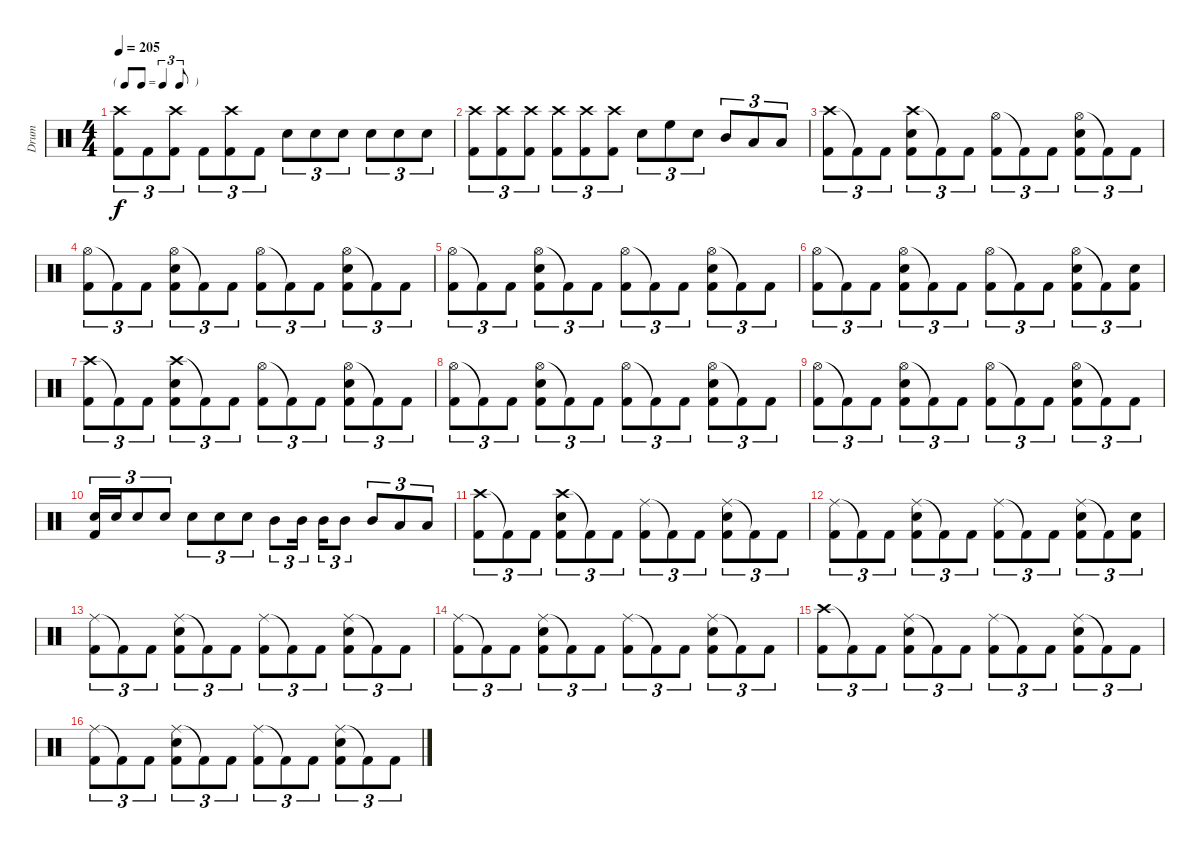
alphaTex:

\track ("Drum" "Drum") {instrument percussion}
\staff {score}
\articulation defaults
\ts (4 4)
\tf triplet8th
\tempo 205
\clef neutral
\ks c
("Crash high (hit)" "Kick (hit) 2").8{tu (3 2) dy f} "Kick (hit) 2".8{tu (3 2)} ("Crash high (hit)" "Kick (hit) 2").8{tu (3 2)} "Kick (hit) 2".8{tu (3 2)} ("Crash high (hit)" "Kick (hit) 2").8{tu (3 2)} "Kick (hit) 2".8{tu (3 2)} "Snare (hit) 2".8{tu (3 2)} "Snare (hit) 2".8{tu (3 2)} "Snare (hit) 2".8{tu (3 2)} "Snare (hit) 2".8{tu (3 2)} "Snare (hit) 2".8{tu (3 2)} "Snare (hit) 2".8{tu (3 2)} |
("Crash high (hit)" "Kick (hit) 2").8{tu (3 2)} ("Crash high (hit)" "Kick (hit) 2").8{tu (3 2)} ("Crash high (hit)" "Kick (hit) 2").8{tu (3 2)} ("Crash high (hit)" "Kick (hit) 2").8{tu (3 2)} ("Crash high (hit)" "Kick (hit) 2").8{tu (3 2)} ("Crash high (hit)" "Kick (hit) 2").8{tu (3 2)} "Snare (hit) 2".8{tu (3 2)} "High Floor Tom (hit)".8{tu (3 2)} "Snare (hit) 2".8{tu (3 2)} "Mid Tom (hit)".8{tu (3 2)} "Low Tom (hit)".8{tu (3 2)} "Low Tom (hit)".8{tu (3 2)} |
("Crash high (hit)" "Kick (hit) 2").8{tu (3 2)} "Kick (hit) 2"{t}.8{tu (3 2)} "Kick (hit) 2".8{tu (3 2)} ("Crash high (hit)" "Snare (hit) 2" "Kick (hit) 2").8{tu (3 2)} "Kick (hit) 2"{t}.8{tu (3 2)} "Kick (hit) 2".8{tu (3 2)} ("Hi-Hat (open)" "Kick (hit) 2").8{tu (3 2)} "Kick (hit) 2"{t}.8{tu (3 2)} "Kick (hit) 2".8{tu (3 2)} ("Hi-Hat (open)" "Snare (hit) 2" "Kick (hit) 2").8{tu (3 2)} "Kick (hit) 2"{t}.8{tu (3 2)} "Kick (hit) 2".8{tu (3 2)} |
("Hi-Hat (open)" "Kick (hit) 2").8{tu (3 2)} "Kick (hit) 2"{t}.8{tu (3 2)} "Kick (hit) 2".8{tu (3 2)} ("Hi-Hat (open)" "Snare (hit) 2" "Kick (hit) 2").8{tu (3 2)} "Kick (hit) 2"{t}.8{tu (3 2)} "Kick (hit) 2".8{tu (3 2)} ("Hi-Hat (open)" "Kick (hit) 2").8{tu (3 2)} "Kick (hit) 2"{t}.8{tu (3 2)} "Kick (hit) 2".8{tu (3 2)} ("Hi-Hat (open)" "Snare (hit) 2" "Kick (hit) 2").8{tu (3 2)} "Kick (hit) 2"{t}.8{tu (3 2)} "Kick (hit) 2".8{tu (3 2)} |
("Hi-Hat (open)" "Kick (hit) 2").8{tu (3 2)} "Kick (hit) 2"{t}.8{tu (3 2)} "Kick (hit) 2".8{tu (3 2)} ("Hi-Hat (open)" "Snare (hit) 2" "Kick (hit) 2").8{tu (3 2)} "Kick (hit) 2"{t}.8{tu (3 2)} "Kick (hit) 2".8{tu (3 2)} ("Hi-Hat (open)" "Kick (hit) 2").8{tu (3 2)} "Kick (hit) 2"{t}.8{tu (3 2)} "Kick (hit) 2".8{tu (3 2)} ("Hi-Hat (open)" "Snare (hit) 2" "Kick (hit) 2").8{tu (3 2)} "Kick (hit) 2"{t}.8{tu (3 2)} "Kick (hit) 2".8{tu (3 2)} |
("Hi-Hat (open)" "Kick (hit) 2").8{tu (3 2)} "Kick (hit) 2"{t}.8{tu (3 2)} "Kick (hit) 2".8{tu (3 2)} ("Hi-Hat (open)" "Snare (hit) 2" "Kick (hit) 2").8{tu (3 2)} "Kick (hit) 2"{t}.8{tu (3 2)} "Kick (hit) 2".8{tu (3 2)} ("Hi-Hat (open)" "Kick (hit) 2").8{tu (3 2)} "Kick (hit) 2"{t}.8{tu (3 2)} "Kick (hit) 2".8{tu (3 2)} ("Hi-Hat (open)" "Snare (hit) 2" "Kick (hit) 2").8{tu (3 2)} "Kick (hit) 2"{t}.8{tu (3 2)} ("Snare (hit) 2" "Kick (hit) 2").8{tu (3 2)} |
("Crash high (hit)" "Kick (hit) 2").8{tu (3 2)} "Kick (hit) 2"{t}.8{tu (3 2)} "Kick (hit) 2".8{tu (3 2)} ("Crash high (hit)" "Snare (hit) 2" "Kick (hit) 2").8{tu (3 2)} "Kick (hit) 2"{t}.8{tu (3 2)} "Kick (hit) 2".8{tu (3 2)} ("Hi-Hat (open)" "Kick (hit) 2").8{tu (3 2)} "Kick (hit) 2"{t}.8{tu (3 2)} "Kick (hit) 2".8{tu (3 2)} ("Hi-Hat (open)" "Snare (hit) 2" "Kick (hit) 2").8{tu (3 2)} "Kick (hit) 2"{t}.8{tu (3 2)} "Kick (hit) 2".8{tu (3 2)} |
("Hi-Hat (open)" "Kick (hit) 2").8{tu (3 2)} "Kick (hit) 2"{t}.8{tu (3 2)} "Kick (hit) 2".8{tu (3 2)} ("Hi-Hat (open)" "Snare (hit) 2" "Kick (hit) 2").8{tu (3 2)} "Kick (hit) 2"{t}.8{tu (3 2)} "Kick (hit) 2".8{tu (3 2)} ("Hi-Hat (open)" "Kick (hit) 2").8{tu (3 2)} "Kick (hit) 2"{t}.8{tu (3 2)} "Kick (hit) 2".8{tu (3 2)} ("Hi-Hat (open)" "Snare (hit) 2" "Kick (hit) 2").8{tu (3 2)} "Kick (hit) 2"{t}.8{tu (3 2)} "Kick (hit) 2".8{tu (3 2)} |
("Hi-Hat (open)" "Kick (hit) 2").8{tu (3 2)} "Kick (hit) 2"{t}.8{tu (3 2)} "Kick (hit) 2".8{tu (3 2)} ("Hi-Hat (open)" "Snare (hit) 2" "Kick (hit) 2").8{tu (3 2)} "Kick (hit) 2"{t}.8{tu (3 2)} "Kick (hit) 2".8{tu (3 2)} ("Hi-Hat (open)" "Kick (hit) 2").8{tu (3 2)} "Kick (hit) 2"{t}.8{tu (3 2)} "Kick (hit) 2".8{tu (3 2)} ("Hi-Hat (open)" "Snare (hit) 2" "Kick (hit) 2").8{tu (3 2)} "Kick (hit) 2"{t}.8{tu (3 2)} "Kick (hit) 2".8{tu (3 2)} |
("Snare (hit) 2" "Kick (hit) 2").16{tu (3 2)} "Snare (hit) 2".16{tu (3 2)} "Snare (hit) 2".8{tu (3 2)} "Snare (hit) 2".8{tu (3 2)} "Snare (hit) 2".8{tu (3 2)} "Snare (hit) 2".8{tu (3 2)} "Snare (hit) 2".8{tu (3 2)} "Mid Tom (hit)".8{tu (3 2)} "Mid Tom (hit)".16{tu (3 2)} "Mid Tom (hit)".16{tu (3 2)} "Mid Tom (hit)".8{tu (3 2)} "Mid Tom (hit)".8{tu (3 2)} "Low Tom (hit)".8{tu (3 2)} "Low Tom (hit)".8{tu (3 2)} |
("Crash high (hit)" "Kick (hit) 2").8{tu (3 2)} "Kick (hit) 2"{t}.8{tu (3 2)} "Kick (hit) 2".8{tu (3 2)} ("Crash high (hit)" "Snare (hit) 2" "Kick (hit) 2").8{tu (3 2)} "Kick (hit) 2"{t}.8{tu (3 2)} "Kick (hit) 2".8{tu (3 2)} ("Ride (middle)" "Kick (hit) 2").8{tu (3 2)} "Kick (hit) 2"{t}.8{tu (3 2)} "Kick (hit) 2".8{tu (3 2)} ("Ride (middle)" "Snare (hit) 2" "Kick (hit) 2").8{tu (3 2)} "Kick (hit) 2"{t}.8{tu (3 2)} "Kick (hit) 2".8{tu (3 2)} |
("Ride (middle)" "Kick (hit) 2").8{tu (3 2)} "Kick (hit) 2"{t}.8{tu (3 2)} "Kick (hit) 2".8{tu (3 2)} ("Ride (middle)" "Snare (hit) 2" "Kick (hit) 2").8{tu (3 2)} "Kick (hit) 2"{t}.8{tu (3 2)} "Kick (hit) 2".8{tu (3 2)} ("Ride (middle)" "Kick (hit) 2").8{tu (3 2)} "Kick (hit) 2"{t}.8{tu (3 2)} "Kick (hit) 2".8{tu (3 2)} ("Ride (middle)" "Snare (hit) 2" "Kick (hit) 2").8{tu (3 2)} "Kick (hit) 2"{t}.8{tu (3 2)} ("Snare (hit) 2" "Kick (hit) 2").8{tu (3 2)} |
("Ride (middle)" "Kick (hit) 2").8{tu (3 2)} "Kick (hit) 2"{t}.8{tu (3 2)} "Kick (hit) 2".8{tu (3 2)} ("Ride (middle)" "Snare (hit) 2" "Kick (hit) 2").8{tu (3 2)} "Kick (hit) 2"{t}.8{tu (3 2)} "Kick (hit) 2".8{tu (3 2)} ("Ride (middle)" "Kick (hit) 2").8{tu (3 2)} "Kick (hit) 2"{t}.8{tu (3 2)} "Kick (hit) 2".8{tu (3 2)} ("Ride (middle)" "Snare (hit) 2" "Kick (hit) 2").8{tu (3 2)} "Kick (hit) 2"{t}.8{tu (3 2)} "Kick (hit) 2".8{tu (3 2)} |
("Ride (middle)" "Kick (hit) 2").8{tu (3 2)} "Kick (hit) 2"{t}.8{tu (3 2)} "Kick (hit) 2".8{tu (3 2)} ("Ride (middle)" "Snare (hit) 2" "Kick (hit) 2").8{tu (3 2)} "Kick (hit) 2"{t}.8{tu (3 2)} "Kick (hit) 2".8{tu (3 2)} ("Ride (middle)" "Kick (hit) 2").8{tu (3 2)} "Kick (hit) 2"{t}.8{tu (3 2)} "Kick (hit) 2".8{tu (3 2)} ("Ride (middle)" "Snare (hit) 2" "Kick (hit) 2").8{tu (3 2)} "Kick (hit) 2"{t}.8{tu (3 2)} "Kick (hit) 2".8{tu (3 2)} |
("Crash high (hit)" "Kick (hit) 2").8{tu (3 2)} "Kick (hit) 2"{t}.8{tu (3 2)} "Kick (hit) 2".8{tu (3 2)} ("Ride (middle)" "Snare (hit) 2" "Kick (hit) 2").8{tu (3 2)} "Kick (hit) 2"{t}.8{tu (3 2)} "Kick (hit) 2".8{tu (3 2)} ("Ride (middle)" "Kick (hit) 2").8{tu (3 2)} "Kick (hit) 2"{t}.8{tu (3 2)} "Kick (hit) 2".8{tu (3 2)} ("Ride (middle)" "Snare (hit) 2" "Kick (hit) 2").8{tu (3 2)} "Kick (hit) 2"{t}.8{tu (3 2)} "Kick (hit) 2".8{tu (3 2)} |
("Ride (middle)" "Kick (hit) 2").8{tu (3 2)} "Kick (hit) 2"{t}.8{tu (3 2)} "Kick (hit) 2".8{tu (3 2)} ("Ride (middle)" "Snare (hit) 2" "Kick (hit) 2").8{tu (3 2)} "Kick (hit) 2"{t}.8{tu (3 2)} "Kick (hit) 2".8{tu (3 2)} ("Ride (middle)" "Kick (hit) 2").8{tu (3 2)} "Kick (hit) 2"{t}.8{tu (3 2)} "Kick (hit) 2".8{tu (3 2)} ("Ride (middle)" "Snare (hit) 2" "Kick (hit) 2").8{tu (3 2)} "Kick (hit) 2"{t}.8{tu (3 2)} "Kick (hit) 2".8{tu (3 2)}
